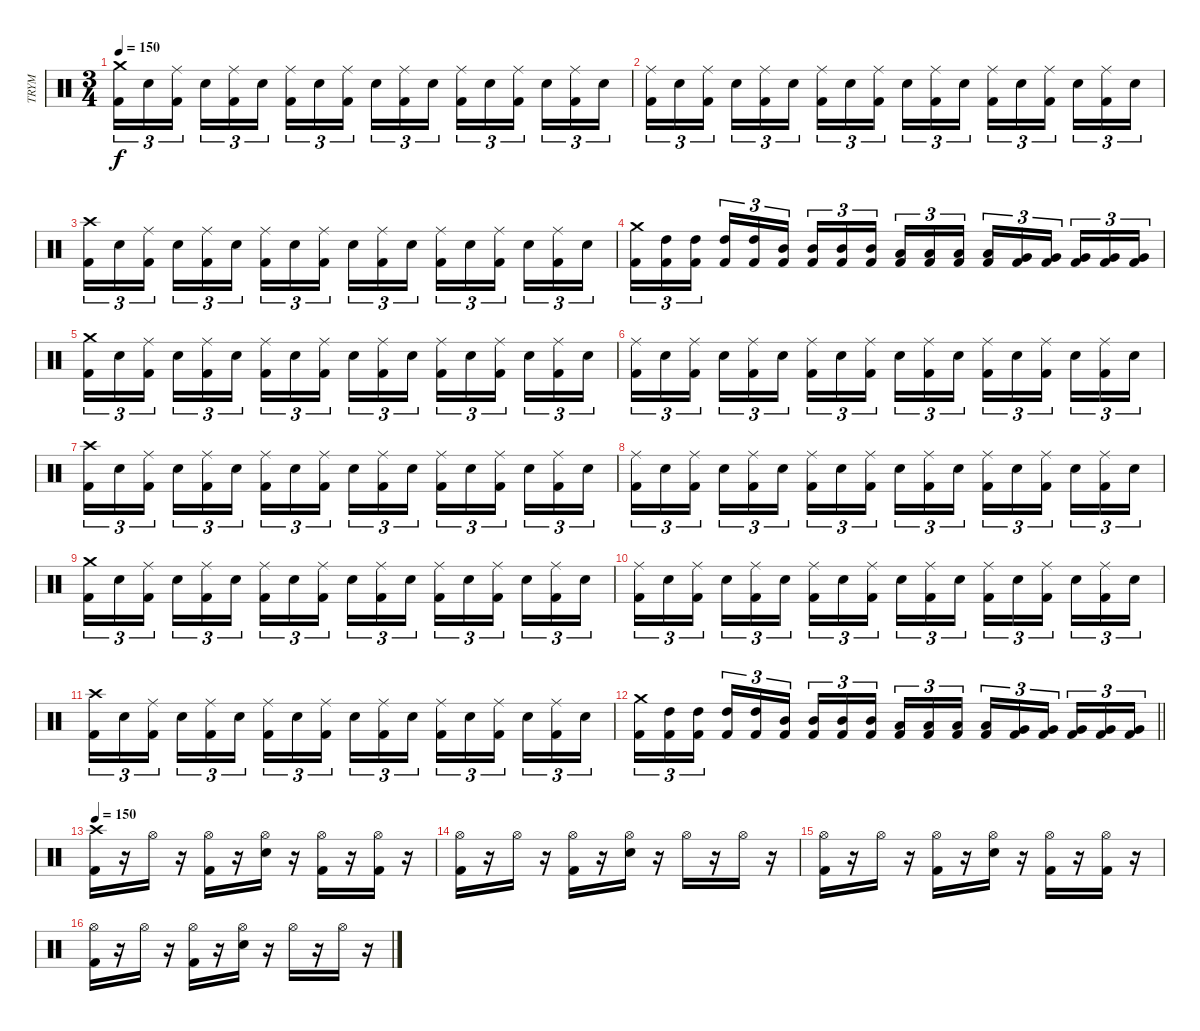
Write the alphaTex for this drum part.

\track ("TRYM" "TRYM") {instrument percussion}
\staff {score}
\articulation defaults
\ts (3 4)
\tempo 150
\clef neutral
\ks c
("Kick (hit) 2" "Crash medium (hit)").16{tu (3 2) dy f} "Electric Snare (hit)".16{tu (3 2)} ("Kick (hit) 2" "Ride (middle)").16{tu (3 2) beam splitsecondary} "Electric Snare (hit)".16{tu (3 2)} ("Kick (hit) 2" "Ride (middle)").16{tu (3 2)} "Electric Snare (hit)".16{tu (3 2)} ("Kick (hit) 2" "Ride (middle)").16{tu (3 2)} "Electric Snare (hit)".16{tu (3 2)} ("Kick (hit) 2" "Ride (middle)").16{tu (3 2) beam splitsecondary} "Electric Snare (hit)".16{tu (3 2)} ("Kick (hit) 2" "Ride (middle)").16{tu (3 2)} "Electric Snare (hit)".16{tu (3 2)} ("Kick (hit) 2" "Ride (middle)").16{tu (3 2)} "Electric Snare (hit)".16{tu (3 2)} ("Kick (hit) 2" "Ride (middle)").16{tu (3 2) beam splitsecondary} "Electric Snare (hit)".16{tu (3 2)} ("Kick (hit) 2" "Ride (middle)").16{tu (3 2)} "Electric Snare (hit)".16{tu (3 2)} |
("Kick (hit) 2" "Ride (middle)").16{tu (3 2)} "Electric Snare (hit)".16{tu (3 2)} ("Kick (hit) 2" "Ride (middle)").16{tu (3 2) beam splitsecondary} "Electric Snare (hit)".16{tu (3 2)} ("Kick (hit) 2" "Ride (middle)").16{tu (3 2)} "Electric Snare (hit)".16{tu (3 2)} ("Kick (hit) 2" "Ride (middle)").16{tu (3 2)} "Electric Snare (hit)".16{tu (3 2)} ("Kick (hit) 2" "Ride (middle)").16{tu (3 2) beam splitsecondary} "Electric Snare (hit)".16{tu (3 2)} ("Kick (hit) 2" "Ride (middle)").16{tu (3 2)} "Electric Snare (hit)".16{tu (3 2)} ("Kick (hit) 2" "Ride (middle)").16{tu (3 2)} "Electric Snare (hit)".16{tu (3 2)} ("Kick (hit) 2" "Ride (middle)").16{tu (3 2) beam splitsecondary} "Electric Snare (hit)".16{tu (3 2)} ("Kick (hit) 2" "Ride (middle)").16{tu (3 2)} "Electric Snare (hit)".16{tu (3 2)} |
("Kick (hit) 2" "Crash high (hit)").16{tu (3 2)} "Electric Snare (hit)".16{tu (3 2)} ("Kick (hit) 2" "Ride (middle)").16{tu (3 2) beam splitsecondary} "Electric Snare (hit)".16{tu (3 2)} ("Kick (hit) 2" "Ride (middle)").16{tu (3 2)} "Electric Snare (hit)".16{tu (3 2)} ("Kick (hit) 2" "Ride (middle)").16{tu (3 2)} "Electric Snare (hit)".16{tu (3 2)} ("Kick (hit) 2" "Ride (middle)").16{tu (3 2) beam splitsecondary} "Electric Snare (hit)".16{tu (3 2)} ("Kick (hit) 2" "Ride (middle)").16{tu (3 2)} "Electric Snare (hit)".16{tu (3 2)} ("Kick (hit) 2" "Ride (middle)").16{tu (3 2)} "Electric Snare (hit)".16{tu (3 2)} ("Kick (hit) 2" "Ride (middle)").16{tu (3 2) beam splitsecondary} "Electric Snare (hit)".16{tu (3 2)} ("Kick (hit) 2" "Ride (middle)").16{tu (3 2)} "Electric Snare (hit)".16{tu (3 2)} |
("Kick (hit) 2" "Crash medium (hit)").16{tu (3 2)} ("Kick (hit) 2" "High Tom (hit)").16{tu (3 2)} ("Kick (hit) 2" "High Tom (hit)").16{tu (3 2) beam splitsecondary} ("Kick (hit) 2" "High Tom (hit)").16{tu (3 2)} ("Kick (hit) 2" "High Tom (hit)").16{tu (3 2)} ("Kick (hit) 2" "Mid Tom (hit)").16{tu (3 2)} ("Kick (hit) 2" "Mid Tom (hit)").16{tu (3 2)} ("Kick (hit) 2" "Mid Tom (hit)").16{tu (3 2)} ("Kick (hit) 2" "Mid Tom (hit)").16{tu (3 2) beam splitsecondary} ("Kick (hit) 2" "Low Tom (hit)").16{tu (3 2)} ("Kick (hit) 2" "Low Tom (hit)").16{tu (3 2)} ("Kick (hit) 2" "Low Tom (hit)").16{tu (3 2)} ("Kick (hit) 2" "Low Tom (hit)").16{tu (3 2)} ("Kick (hit) 2" "Very Low Tom (hit)").16{tu (3 2)} ("Kick (hit) 2" "Very Low Tom (hit)").16{tu (3 2) beam splitsecondary} ("Kick (hit) 2" "Very Low Tom (hit)").16{tu (3 2)} ("Kick (hit) 2" "Very Low Tom (hit)").16{tu (3 2)} ("Kick (hit) 2" "Very Low Tom (hit)").16{tu (3 2)} |
("Kick (hit) 2" "Crash medium (hit)").16{tu (3 2)} "Electric Snare (hit)".16{tu (3 2)} ("Kick (hit) 2" "Ride (middle)").16{tu (3 2) beam splitsecondary} "Electric Snare (hit)".16{tu (3 2)} ("Kick (hit) 2" "Ride (middle)").16{tu (3 2)} "Electric Snare (hit)".16{tu (3 2)} ("Kick (hit) 2" "Ride (middle)").16{tu (3 2)} "Electric Snare (hit)".16{tu (3 2)} ("Kick (hit) 2" "Ride (middle)").16{tu (3 2) beam splitsecondary} "Electric Snare (hit)".16{tu (3 2)} ("Kick (hit) 2" "Ride (middle)").16{tu (3 2)} "Electric Snare (hit)".16{tu (3 2)} ("Kick (hit) 2" "Ride (middle)").16{tu (3 2)} "Electric Snare (hit)".16{tu (3 2)} ("Kick (hit) 2" "Ride (middle)").16{tu (3 2) beam splitsecondary} "Electric Snare (hit)".16{tu (3 2)} ("Kick (hit) 2" "Ride (middle)").16{tu (3 2)} "Electric Snare (hit)".16{tu (3 2)} |
("Kick (hit) 2" "Ride (middle)").16{tu (3 2)} "Electric Snare (hit)".16{tu (3 2)} ("Kick (hit) 2" "Ride (middle)").16{tu (3 2) beam splitsecondary} "Electric Snare (hit)".16{tu (3 2)} ("Kick (hit) 2" "Ride (middle)").16{tu (3 2)} "Electric Snare (hit)".16{tu (3 2)} ("Kick (hit) 2" "Ride (middle)").16{tu (3 2)} "Electric Snare (hit)".16{tu (3 2)} ("Kick (hit) 2" "Ride (middle)").16{tu (3 2) beam splitsecondary} "Electric Snare (hit)".16{tu (3 2)} ("Kick (hit) 2" "Ride (middle)").16{tu (3 2)} "Electric Snare (hit)".16{tu (3 2)} ("Kick (hit) 2" "Ride (middle)").16{tu (3 2)} "Electric Snare (hit)".16{tu (3 2)} ("Kick (hit) 2" "Ride (middle)").16{tu (3 2) beam splitsecondary} "Electric Snare (hit)".16{tu (3 2)} ("Kick (hit) 2" "Ride (middle)").16{tu (3 2)} "Electric Snare (hit)".16{tu (3 2)} |
("Kick (hit) 2" "Crash high (hit)").16{tu (3 2)} "Electric Snare (hit)".16{tu (3 2)} ("Kick (hit) 2" "Ride (middle)").16{tu (3 2) beam splitsecondary} "Electric Snare (hit)".16{tu (3 2)} ("Kick (hit) 2" "Ride (middle)").16{tu (3 2)} "Electric Snare (hit)".16{tu (3 2)} ("Kick (hit) 2" "Ride (middle)").16{tu (3 2)} "Electric Snare (hit)".16{tu (3 2)} ("Kick (hit) 2" "Ride (middle)").16{tu (3 2) beam splitsecondary} "Electric Snare (hit)".16{tu (3 2)} ("Kick (hit) 2" "Ride (middle)").16{tu (3 2)} "Electric Snare (hit)".16{tu (3 2)} ("Kick (hit) 2" "Ride (middle)").16{tu (3 2)} "Electric Snare (hit)".16{tu (3 2)} ("Kick (hit) 2" "Ride (middle)").16{tu (3 2) beam splitsecondary} "Electric Snare (hit)".16{tu (3 2)} ("Kick (hit) 2" "Ride (middle)").16{tu (3 2)} "Electric Snare (hit)".16{tu (3 2)} |
("Kick (hit) 2" "Ride (middle)").16{tu (3 2)} "Electric Snare (hit)".16{tu (3 2)} ("Kick (hit) 2" "Ride (middle)").16{tu (3 2) beam splitsecondary} "Electric Snare (hit)".16{tu (3 2)} ("Kick (hit) 2" "Ride (middle)").16{tu (3 2)} "Electric Snare (hit)".16{tu (3 2)} ("Kick (hit) 2" "Ride (middle)").16{tu (3 2)} "Electric Snare (hit)".16{tu (3 2)} ("Kick (hit) 2" "Ride (middle)").16{tu (3 2) beam splitsecondary} "Electric Snare (hit)".16{tu (3 2)} ("Kick (hit) 2" "Ride (middle)").16{tu (3 2)} "Electric Snare (hit)".16{tu (3 2)} ("Kick (hit) 2" "Ride (middle)").16{tu (3 2)} "Electric Snare (hit)".16{tu (3 2)} ("Kick (hit) 2" "Ride (middle)").16{tu (3 2) beam splitsecondary} "Electric Snare (hit)".16{tu (3 2)} ("Kick (hit) 2" "Ride (middle)").16{tu (3 2)} "Electric Snare (hit)".16{tu (3 2)} |
("Kick (hit) 2" "Crash medium (hit)").16{tu (3 2)} "Electric Snare (hit)".16{tu (3 2)} ("Kick (hit) 2" "Ride (middle)").16{tu (3 2) beam splitsecondary} "Electric Snare (hit)".16{tu (3 2)} ("Kick (hit) 2" "Ride (middle)").16{tu (3 2)} "Electric Snare (hit)".16{tu (3 2)} ("Kick (hit) 2" "Ride (middle)").16{tu (3 2)} "Electric Snare (hit)".16{tu (3 2)} ("Kick (hit) 2" "Ride (middle)").16{tu (3 2) beam splitsecondary} "Electric Snare (hit)".16{tu (3 2)} ("Kick (hit) 2" "Ride (middle)").16{tu (3 2)} "Electric Snare (hit)".16{tu (3 2)} ("Kick (hit) 2" "Ride (middle)").16{tu (3 2)} "Electric Snare (hit)".16{tu (3 2)} ("Kick (hit) 2" "Ride (middle)").16{tu (3 2) beam splitsecondary} "Electric Snare (hit)".16{tu (3 2)} ("Kick (hit) 2" "Ride (middle)").16{tu (3 2)} "Electric Snare (hit)".16{tu (3 2)} |
("Kick (hit) 2" "Ride (middle)").16{tu (3 2)} "Electric Snare (hit)".16{tu (3 2)} ("Kick (hit) 2" "Ride (middle)").16{tu (3 2) beam splitsecondary} "Electric Snare (hit)".16{tu (3 2)} ("Kick (hit) 2" "Ride (middle)").16{tu (3 2)} "Electric Snare (hit)".16{tu (3 2)} ("Kick (hit) 2" "Ride (middle)").16{tu (3 2)} "Electric Snare (hit)".16{tu (3 2)} ("Kick (hit) 2" "Ride (middle)").16{tu (3 2) beam splitsecondary} "Electric Snare (hit)".16{tu (3 2)} ("Kick (hit) 2" "Ride (middle)").16{tu (3 2)} "Electric Snare (hit)".16{tu (3 2)} ("Kick (hit) 2" "Ride (middle)").16{tu (3 2)} "Electric Snare (hit)".16{tu (3 2)} ("Kick (hit) 2" "Ride (middle)").16{tu (3 2) beam splitsecondary} "Electric Snare (hit)".16{tu (3 2)} ("Kick (hit) 2" "Ride (middle)").16{tu (3 2)} "Electric Snare (hit)".16{tu (3 2)} |
("Kick (hit) 2" "Crash high (hit)").16{tu (3 2)} "Electric Snare (hit)".16{tu (3 2)} ("Kick (hit) 2" "Ride (middle)").16{tu (3 2) beam splitsecondary} "Electric Snare (hit)".16{tu (3 2)} ("Kick (hit) 2" "Ride (middle)").16{tu (3 2)} "Electric Snare (hit)".16{tu (3 2)} ("Kick (hit) 2" "Ride (middle)").16{tu (3 2)} "Electric Snare (hit)".16{tu (3 2)} ("Kick (hit) 2" "Ride (middle)").16{tu (3 2) beam splitsecondary} "Electric Snare (hit)".16{tu (3 2)} ("Kick (hit) 2" "Ride (middle)").16{tu (3 2)} "Electric Snare (hit)".16{tu (3 2)} ("Kick (hit) 2" "Ride (middle)").16{tu (3 2)} "Electric Snare (hit)".16{tu (3 2)} ("Kick (hit) 2" "Ride (middle)").16{tu (3 2) beam splitsecondary} "Electric Snare (hit)".16{tu (3 2)} ("Kick (hit) 2" "Ride (middle)").16{tu (3 2)} "Electric Snare (hit)".16{tu (3 2)} |
\barLineRight lightlight
("Kick (hit) 2" "Crash medium (hit)").16{tu (3 2)} ("Kick (hit) 2" "High Tom (hit)").16{tu (3 2)} ("Kick (hit) 2" "High Tom (hit)").16{tu (3 2) beam splitsecondary} ("Kick (hit) 2" "High Tom (hit)").16{tu (3 2)} ("Kick (hit) 2" "High Tom (hit)").16{tu (3 2)} ("Kick (hit) 2" "Mid Tom (hit)").16{tu (3 2)} ("Kick (hit) 2" "Mid Tom (hit)").16{tu (3 2)} ("Kick (hit) 2" "Mid Tom (hit)").16{tu (3 2)} ("Kick (hit) 2" "Mid Tom (hit)").16{tu (3 2) beam splitsecondary} ("Kick (hit) 2" "Low Tom (hit)").16{tu (3 2)} ("Kick (hit) 2" "Low Tom (hit)").16{tu (3 2)} ("Kick (hit) 2" "Low Tom (hit)").16{tu (3 2)} ("Kick (hit) 2" "Low Tom (hit)").16{tu (3 2)} ("Kick (hit) 2" "Very Low Tom (hit)").16{tu (3 2)} ("Kick (hit) 2" "Very Low Tom (hit)").16{tu (3 2) beam splitsecondary} ("Kick (hit) 2" "Very Low Tom (hit)").16{tu (3 2)} ("Kick (hit) 2" "Very Low Tom (hit)").16{tu (3 2)} ("Kick (hit) 2" "Very Low Tom (hit)").16{tu (3 2)} |
\tempo 150
("Kick (hit) 2" "Crash high (hit)").16 r.16 "Hi-Hat (open)".16 r.16 ("Kick (hit) 2" "Hi-Hat (open)").16 r.16 ("Hi-Hat (open)" "Electric Snare (hit)").16 r.16 ("Kick (hit) 2" "Hi-Hat (open)").16 r.16 ("Kick (hit) 2" "Hi-Hat (open)").16 r.16 |
("Kick (hit) 2" "Hi-Hat (open)").16 r.16 "Hi-Hat (open)".16 r.16 ("Kick (hit) 2" "Hi-Hat (open)").16 r.16 ("Hi-Hat (open)" "Electric Snare (hit)").16 r.16 "Hi-Hat (open)".16 r.16 "Hi-Hat (open)".16 r.16 |
("Kick (hit) 2" "Hi-Hat (open)").16 r.16 "Hi-Hat (open)".16 r.16 ("Kick (hit) 2" "Hi-Hat (open)").16 r.16 ("Hi-Hat (open)" "Electric Snare (hit)").16 r.16 ("Kick (hit) 2" "Hi-Hat (open)").16 r.16 ("Kick (hit) 2" "Hi-Hat (open)").16 r.16 |
("Kick (hit) 2" "Hi-Hat (open)").16 r.16 "Hi-Hat (open)".16 r.16 ("Kick (hit) 2" "Hi-Hat (open)").16 r.16 ("Hi-Hat (open)" "Electric Snare (hit)").16 r.16 "Hi-Hat (open)".16 r.16 "Hi-Hat (open)".16 r.16
